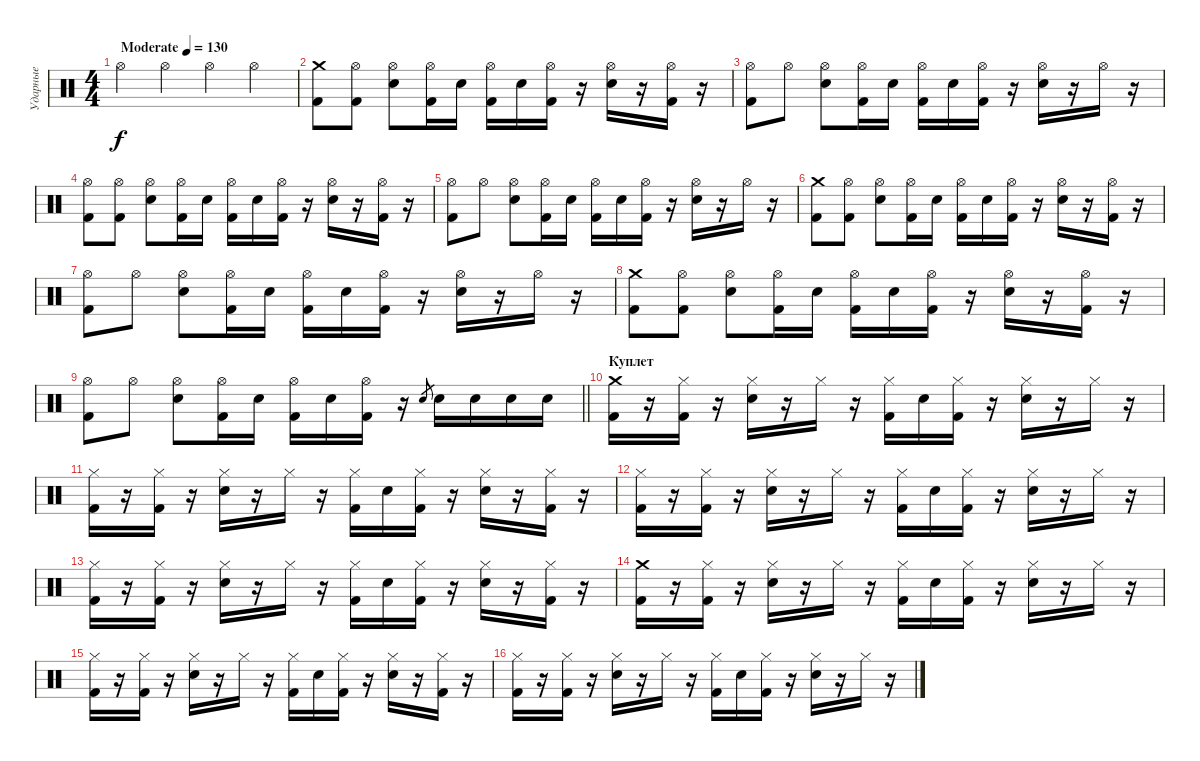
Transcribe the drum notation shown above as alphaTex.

\track ("Ударные" "Ударные") {instrument percussion}
\staff {score}
\articulation defaults
\ts (4 4)
\tempo (130 "Moderate")
\clef neutral
\ks c "Hi-Hat (open)".4{dy f} "Hi-Hat (open)".4 "Hi-Hat (open)".4 "Hi-Hat (open)".4
|
("Kick (hit) 2" "Crash medium (hit)").8 ("Kick (hit) 2" "Hi-Hat (open)").8 ("Electric Snare (hit)" "Hi-Hat (open)").8 ("Kick (hit) 2" "Hi-Hat (open)").16 "Electric Snare (hit)".16 ("Hi-Hat (open)" "Kick (hit) 2").16 "Electric Snare (hit)".16 ("Hi-Hat (open)" "Kick (hit) 2").16 r.16 ("Electric Snare (hit)" "Hi-Hat (open)").16 r.16 ("Kick (hit) 2" "Hi-Hat (open)").16 r.16 |
("Kick (hit) 2" "Hi-Hat (open)").8 "Hi-Hat (open)".8 ("Electric Snare (hit)" "Hi-Hat (open)").8 ("Kick (hit) 2" "Hi-Hat (open)").16 "Electric Snare (hit)".16 ("Hi-Hat (open)" "Kick (hit) 2").16 "Electric Snare (hit)".16 ("Hi-Hat (open)" "Kick (hit) 2").16 r.16 ("Electric Snare (hit)" "Hi-Hat (open)").16 r.16 "Hi-Hat (open)".16 r.16 |
("Kick (hit) 2" "Hi-Hat (open)").8 ("Kick (hit) 2" "Hi-Hat (open)").8 ("Electric Snare (hit)" "Hi-Hat (open)").8 ("Kick (hit) 2" "Hi-Hat (open)").16 "Electric Snare (hit)".16 ("Hi-Hat (open)" "Kick (hit) 2").16 "Electric Snare (hit)".16 ("Hi-Hat (open)" "Kick (hit) 2").16 r.16 ("Electric Snare (hit)" "Hi-Hat (open)").16 r.16 ("Kick (hit) 2" "Hi-Hat (open)").16 r.16 |
("Kick (hit) 2" "Hi-Hat (open)").8 "Hi-Hat (open)".8 ("Electric Snare (hit)" "Hi-Hat (open)").8 ("Kick (hit) 2" "Hi-Hat (open)").16 "Electric Snare (hit)".16 ("Hi-Hat (open)" "Kick (hit) 2").16 "Electric Snare (hit)".16 ("Hi-Hat (open)" "Kick (hit) 2").16 r.16 ("Electric Snare (hit)" "Hi-Hat (open)").16 r.16 "Hi-Hat (open)".16 r.16 |
("Kick (hit) 2" "Crash medium (hit)").8 ("Kick (hit) 2" "Hi-Hat (open)").8 ("Electric Snare (hit)" "Hi-Hat (open)").8 ("Kick (hit) 2" "Hi-Hat (open)").16 "Electric Snare (hit)".16 ("Hi-Hat (open)" "Kick (hit) 2").16 "Electric Snare (hit)".16 ("Hi-Hat (open)" "Kick (hit) 2").16 r.16 ("Electric Snare (hit)" "Hi-Hat (open)").16 r.16 ("Kick (hit) 2" "Hi-Hat (open)").16 r.16 |
("Kick (hit) 2" "Hi-Hat (open)").8 "Hi-Hat (open)".8 ("Electric Snare (hit)" "Hi-Hat (open)").8 ("Kick (hit) 2" "Hi-Hat (open)").16 "Electric Snare (hit)".16 ("Hi-Hat (open)" "Kick (hit) 2").16 "Electric Snare (hit)".16 ("Hi-Hat (open)" "Kick (hit) 2").16 r.16 ("Electric Snare (hit)" "Hi-Hat (open)").16 r.16 "Hi-Hat (open)".16 r.16 |
("Kick (hit) 2" "Crash medium (hit)").8 ("Kick (hit) 2" "Hi-Hat (open)").8 ("Electric Snare (hit)" "Hi-Hat (open)").8 ("Kick (hit) 2" "Hi-Hat (open)").16 "Electric Snare (hit)".16 ("Hi-Hat (open)" "Kick (hit) 2").16 "Electric Snare (hit)".16 ("Hi-Hat (open)" "Kick (hit) 2").16 r.16 ("Electric Snare (hit)" "Hi-Hat (open)").16 r.16 ("Kick (hit) 2" "Hi-Hat (open)").16 r.16 |
\barLineRight lightlight
("Kick (hit) 2" "Hi-Hat (open)").8 "Hi-Hat (open)".8 ("Electric Snare (hit)" "Hi-Hat (open)").8 ("Kick (hit) 2" "Hi-Hat (open)").16 "Electric Snare (hit)".16 ("Hi-Hat (open)" "Kick (hit) 2").16 "Electric Snare (hit)".16 ("Hi-Hat (open)" "Kick (hit) 2").16 r.16 "Electric Snare (hit)".8{gr} "Electric Snare (hit)".16 "Electric Snare (hit)".16 "Electric Snare (hit)".16 "Electric Snare (hit)".16 |
\section ("" "Куплет")
("Kick (hit) 2" "Crash medium (hit)").16 r.16 ("Kick (hit) 2" "Hi-Hat (closed)").16 r.16 ("Hi-Hat (closed)" "Electric Snare (hit)").16 r.16 "Hi-Hat (closed)".16 r.16 ("Hi-Hat (closed)" "Kick (hit) 2").16 "Electric Snare (hit)".16 ("Hi-Hat (closed)" "Kick (hit) 2").16 r.16 ("Hi-Hat (closed)" "Electric Snare (hit)").16 r.16 "Hi-Hat (closed)".16 r.16 |
("Kick (hit) 2" "Hi-Hat (closed)").16 r.16 ("Kick (hit) 2" "Hi-Hat (closed)").16 r.16 ("Hi-Hat (closed)" "Electric Snare (hit)").16 r.16 "Hi-Hat (closed)".16 r.16 ("Hi-Hat (closed)" "Kick (hit) 2").16 "Electric Snare (hit)".16 ("Hi-Hat (closed)" "Kick (hit) 2").16 r.16 ("Hi-Hat (closed)" "Electric Snare (hit)").16 r.16 ("Hi-Hat (closed)" "Kick (hit) 2").16 r.16 |
("Kick (hit) 2" "Hi-Hat (closed)").16 r.16 ("Kick (hit) 2" "Hi-Hat (closed)").16 r.16 ("Hi-Hat (closed)" "Electric Snare (hit)").16 r.16 "Hi-Hat (closed)".16 r.16 ("Hi-Hat (closed)" "Kick (hit) 2").16 "Electric Snare (hit)".16 ("Hi-Hat (closed)" "Kick (hit) 2").16 r.16 ("Hi-Hat (closed)" "Electric Snare (hit)").16 r.16 "Hi-Hat (closed)".16 r.16 |
("Kick (hit) 2" "Hi-Hat (closed)").16 r.16 ("Kick (hit) 2" "Hi-Hat (closed)").16 r.16 ("Hi-Hat (closed)" "Electric Snare (hit)").16 r.16 "Hi-Hat (closed)".16 r.16 ("Hi-Hat (closed)" "Kick (hit) 2").16 "Electric Snare (hit)".16 ("Hi-Hat (closed)" "Kick (hit) 2").16 r.16 ("Hi-Hat (closed)" "Electric Snare (hit)").16 r.16 ("Hi-Hat (closed)" "Kick (hit) 2").16 r.16 |
("Kick (hit) 2" "Crash medium (hit)").16 r.16 ("Kick (hit) 2" "Hi-Hat (closed)").16 r.16 ("Hi-Hat (closed)" "Electric Snare (hit)").16 r.16 "Hi-Hat (closed)".16 r.16 ("Hi-Hat (closed)" "Kick (hit) 2").16 "Electric Snare (hit)".16 ("Hi-Hat (closed)" "Kick (hit) 2").16 r.16 ("Hi-Hat (closed)" "Electric Snare (hit)").16 r.16 "Hi-Hat (closed)".16 r.16 |
("Kick (hit) 2" "Hi-Hat (closed)").16 r.16 ("Kick (hit) 2" "Hi-Hat (closed)").16 r.16 ("Hi-Hat (closed)" "Electric Snare (hit)").16 r.16 "Hi-Hat (closed)".16 r.16 ("Hi-Hat (closed)" "Kick (hit) 2").16 "Electric Snare (hit)".16 ("Hi-Hat (closed)" "Kick (hit) 2").16 r.16 ("Hi-Hat (closed)" "Electric Snare (hit)").16 r.16 ("Hi-Hat (closed)" "Kick (hit) 2").16 r.16 |
("Kick (hit) 2" "Hi-Hat (closed)").16 r.16 ("Kick (hit) 2" "Hi-Hat (closed)").16 r.16 ("Hi-Hat (closed)" "Electric Snare (hit)").16 r.16 "Hi-Hat (closed)".16 r.16 ("Hi-Hat (closed)" "Kick (hit) 2").16 "Electric Snare (hit)".16 ("Hi-Hat (closed)" "Kick (hit) 2").16 r.16 ("Hi-Hat (closed)" "Electric Snare (hit)").16 r.16 "Hi-Hat (closed)".16 r.16
